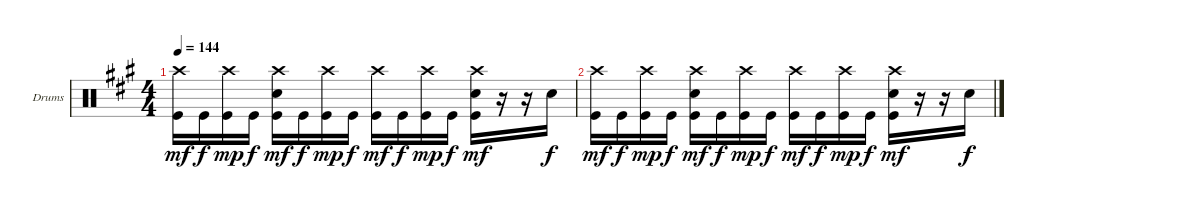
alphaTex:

\defaultSystemsLayout 4
\bracketExtendMode groupsimilarinstruments
\firstSystemTrackNameOrientation horizontal
\otherSystemsTrackNameOrientation horizontal
\track ("Drumkit" "Drums") {instrument percussion}
\staff {score}
\articulation defaults
\ts (4 4)
\tempo 144
\clef neutral
\scale
1.05801
\ks a
("Crash high (hit)" "Kick (hit)").16{dy mf} "Kick (hit)".16{dy f} ("Crash high (hit)" "Kick (hit)").16{dy mp} "Kick (hit)".16{dy f} ("Crash high (hit)" "Snare (hit) 2" "Kick (hit)").16{dy mf} "Kick (hit)".16{dy f} ("Crash high (hit)" "Kick (hit)").16{dy mp} "Kick (hit)".16{dy f} ("Crash high (hit)" "Kick (hit)").16{dy mf} "Kick (hit)".16{dy f} ("Crash high (hit)" "Kick (hit)").16{dy mp} "Kick (hit)".16{dy f} ("Crash high (hit)" "Snare (hit) 2" "Kick (hit)").16{dy mf} r.16 r.16 "Snare (hit) 2".16{dy f} |
\scale
0.941992 ("Crash high (hit)" "Kick (hit)").16{dy mf} "Kick (hit)".16{dy f} ("Crash high (hit)" "Kick (hit)").16{dy mp} "Kick (hit)".16{dy f} ("Crash high (hit)" "Snare (hit) 2" "Kick (hit)").16{dy mf} "Kick (hit)".16{dy f} ("Crash high (hit)" "Kick (hit)").16{dy mp} "Kick (hit)".16{dy f} ("Crash high (hit)" "Kick (hit)").16{dy mf} "Kick (hit)".16{dy f} ("Crash high (hit)" "Kick (hit)").16{dy mp} "Kick (hit)".16{dy f} ("Crash high (hit)" "Snare (hit) 2" "Kick (hit)").16{dy mf} r.16 r.16 "Snare (hit) 2".16{dy f}
